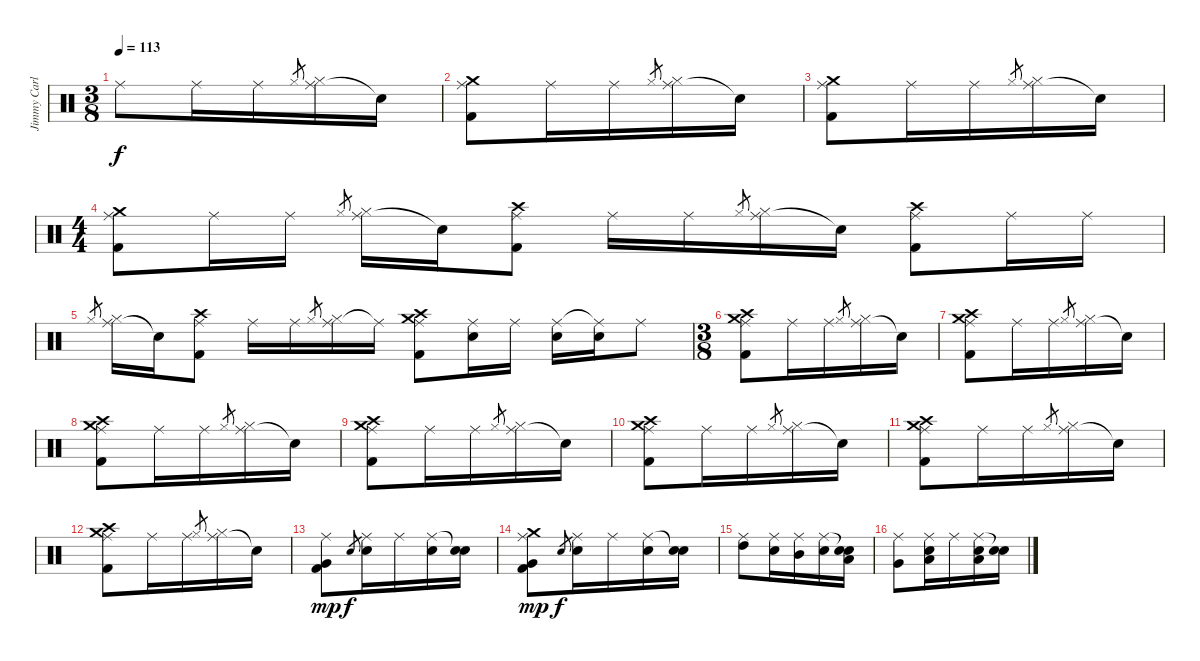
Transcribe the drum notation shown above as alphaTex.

\track ("Jimmy Carl Black" "Jimmy Carl") {instrument percussion}
\staff {score}
\articulation defaults
\ts (3 8)
\tempo 113
\clef neutral
\ks c "Ride (middle)".8{dy f} "Ride (middle)".16 "Ride (middle)".16 "Hi-Hat (closed)".8{gr}
("Ride (middle)" "Hi-Hat (closed)").16 "Snare (hit)"{t}.16 |
("Ride (middle)" "Crash medium (hit)" "Kick (hit) 2").8 "Ride (middle)".16 "Ride (middle)".16 "Hi-Hat (closed)".8{gr} ("Ride (middle)" "Hi-Hat (closed)").16 "Snare (hit)"{t}.16 |
("Ride (middle)" "Crash medium (hit)" "Kick (hit) 2").8 "Ride (middle)".16 "Ride (middle)".16 "Hi-Hat (closed)".8{gr} ("Ride (middle)" "Hi-Hat (closed)").16 "Snare (hit)"{t}.16 |
\ts (4 4)
("Ride (middle)" "Crash medium (hit)" "Kick (hit) 2").8 "Ride (middle)".16 "Ride (middle)".16 "Hi-Hat (closed)".8{gr} ("Ride (middle)" "Hi-Hat (closed)").16 "Snare (hit)"{t}.16 ("Ride (middle)" "Crash high (hit)" "Kick (hit) 2").8 "Ride (middle)".16 "Ride (middle)".16 "Hi-Hat (closed)".8{gr} ("Ride (middle)" "Hi-Hat (closed)").16 "Snare (hit)"{t}.16 ("Ride (middle)" "Crash high (hit)" "Kick (hit) 2").8 "Ride (middle)".16 "Ride (middle)".16 |
"Hi-Hat (closed)".8{gr} ("Ride (middle)" "Hi-Hat (closed)").16 "Snare (hit)"{t}.16 ("Ride (middle)" "Crash high (hit)" "Kick (hit) 2").8 "Ride (middle)".16 "Ride (middle)".16 "Hi-Hat (closed)".8{gr} ("Ride (middle)" "Hi-Hat (closed)").16 "Ride (middle)"{t}.16 ("Ride (middle)" "Crash high (hit)" "Crash medium (hit)" "Kick (hit) 2").8 ("Ride (middle)" "Snare (hit) 2").16 "Ride (middle)".16 ("Ride (middle)" "Snare (hit) 2").16 ("Ride (middle)"{t} "Snare (hit) 2").16 "Ride (middle)".8 |
\ts (3 8)
("Ride (middle)" "Crash high (hit)" "Crash medium (hit)" "Kick (hit) 2").8 "Ride (middle)".16 "Ride (middle)".16 "Hi-Hat (closed)".8{gr} ("Ride (middle)" "Hi-Hat (closed)").16 "Snare (hit)"{t}.16 |
("Ride (middle)" "Crash high (hit)" "Crash medium (hit)" "Kick (hit) 2").8 "Ride (middle)".16 "Ride (middle)".16 "Hi-Hat (closed)".8{gr} ("Ride (middle)" "Hi-Hat (closed)").16 "Snare (hit)"{t}.16 |
("Ride (middle)" "Crash high (hit)" "Crash medium (hit)" "Kick (hit) 2").8 "Ride (middle)".16 "Ride (middle)".16 "Hi-Hat (closed)".8{gr} ("Ride (middle)" "Hi-Hat (closed)").16 "Snare (hit)"{t}.16 |
("Ride (middle)" "Crash high (hit)" "Crash medium (hit)" "Kick (hit) 2").8 "Ride (middle)".16 "Ride (middle)".16 "Hi-Hat (closed)".8{gr} ("Ride (middle)" "Hi-Hat (closed)").16 "Snare (hit)"{t}.16 |
("Ride (middle)" "Crash high (hit)" "Crash medium (hit)" "Kick (hit) 2").8 "Ride (middle)".16 "Ride (middle)".16 "Hi-Hat (closed)".8{gr} ("Ride (middle)" "Hi-Hat (closed)").16 "Snare (hit)"{t}.16 |
("Ride (middle)" "Crash high (hit)" "Crash medium (hit)" "Kick (hit) 2").8 "Ride (middle)".16 "Ride (middle)".16 "Hi-Hat (closed)".8{gr} ("Ride (middle)" "Hi-Hat (closed)").16 "Snare (hit)"{t}.16 |
("Ride (middle)" "Crash high (hit)" "Crash medium (hit)" "Kick (hit) 2").8 "Ride (middle)".16 "Ride (middle)".16 "Hi-Hat (closed)".8{gr} ("Ride (middle)" "Hi-Hat (closed)").16 "Snare (hit)"{t}.16 |
("Ride (middle)" "Very Low Tom (hit)" "Kick (hit) 2").8{dy mp} "Snare (hit) 2".8{gr dy f} ("Ride (middle)" "Snare (hit) 2").16 "Ride (middle)".16 ("Ride (middle)" "Snare (hit) 2").16 ("Snare (hit)"{t} "Snare (hit) 2").16 |
("Ride (middle)" "Crash medium (hit)" "Very Low Tom (hit)" "Kick (hit) 2").8{dy mp} "Snare (hit) 2".8{gr dy f} ("Ride (middle)" "Snare (hit) 2").16 "Ride (middle)".16 ("Ride (middle)" "Snare (hit) 2").16 ("Snare (hit)"{t} "Snare (hit) 2").16 |
("Ride (middle)" "High Tom (hit)").8 ("Ride (middle)" "Snare (hit) 2").16 ("Ride (middle)" "Mid Tom (hit)").16 ("Ride (middle)" "Snare (hit) 2").16 ("Snare (hit)"{t} "Low Tom (hit)" "Snare (hit) 2").16 |
("Ride (middle)" "Very Low Tom (hit)").8 ("Ride (middle)" "Low Floor Tom (hit)" "Snare (hit) 2").16 "Ride (middle)".16 ("Ride (middle)" "Low Floor Tom (hit)" "Snare (hit) 2").16 ("Snare (hit)"{t} "Snare (hit) 2").16
